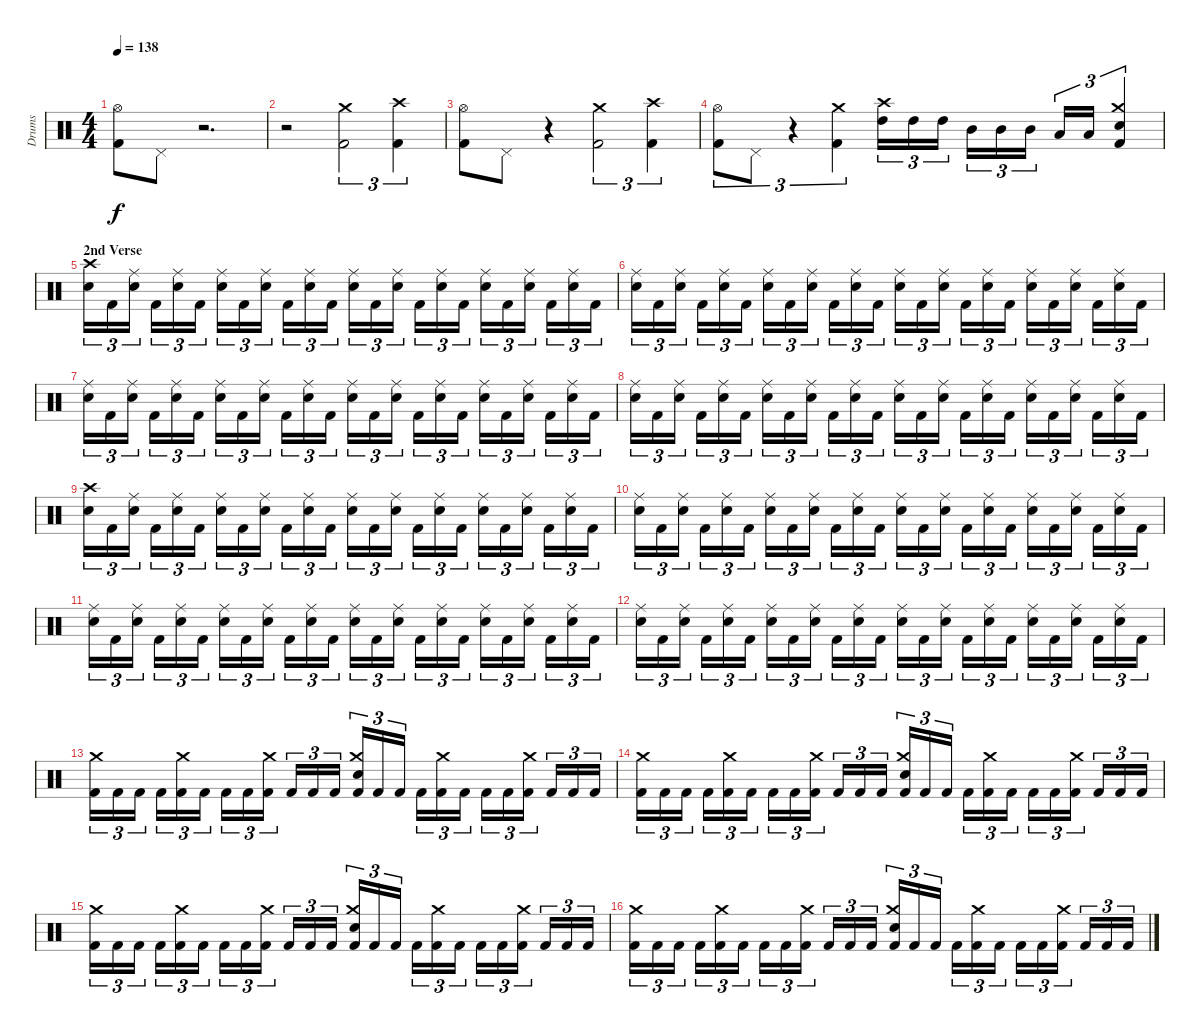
\track ("Drums" "Drums") {instrument percussion}
\staff {score}
\articulation defaults
\ts (4 4)
\tempo 138
\clef neutral
\ks c
("Kick (hit) 2" "Hi-Hat (open)").8{dy f} "Pedal Hi-Hat (hit)".8 r.2{d} |
r.2 ("Kick (hit) 2" "Crash medium (hit)").2{tu (3 2)} ("Kick (hit) 2" "Crash high (hit)").4{tu (3 2)} |
("Kick (hit) 2" "Hi-Hat (open)").8 "Pedal Hi-Hat (hit)".8 r.4 ("Kick (hit) 2" "Crash medium (hit)").2{tu (3 2)} ("Kick (hit) 2" "Crash high (hit)").4{tu (3 2)} |
("Kick (hit) 2" "Hi-Hat (open)").8{tu (3 2)} "Pedal Hi-Hat (hit)".8{tu (3 2)} r.4{tu (3 2)} ("Kick (hit) 2" "Crash medium (hit)").4{tu (3 2)} ("High Tom (hit)" "Crash high (hit)").16{tu (3 2)} "High Tom (hit)".16{tu (3 2)} "High Tom (hit)".16{tu (3 2)} "Mid Tom (hit)".16{tu (3 2)} "Mid Tom (hit)".16{tu (3 2)} "Mid Tom (hit)".16{tu (3 2)} "Low Tom (hit)".16{tu (3 2)} "Low Tom (hit)".16{tu (3 2)} ("Kick (hit) 2" "Electric Snare (hit)" "Crash medium (hit)").4{tu (3 2)} |
\section ("" "2nd Verse")
("Electric Snare (hit)" "Crash high (hit)").16{tu (3 2)} "Kick (hit) 2".16{tu (3 2)} ("Electric Snare (hit)" "Ride (middle)").16{tu (3 2)} "Kick (hit) 2".16{tu (3 2)} ("Electric Snare (hit)" "Ride (middle)").16{tu (3 2)} "Kick (hit) 2".16{tu (3 2)} ("Electric Snare (hit)" "Ride (middle)").16{tu (3 2)} "Kick (hit) 2".16{tu (3 2)} ("Electric Snare (hit)" "Ride (middle)").16{tu (3 2)} "Kick (hit) 2".16{tu (3 2)} ("Electric Snare (hit)" "Ride (middle)").16{tu (3 2)} "Kick (hit) 2".16{tu (3 2)} ("Electric Snare (hit)" "Ride (middle)").16{tu (3 2)} "Kick (hit) 2".16{tu (3 2)} ("Electric Snare (hit)" "Ride (middle)").16{tu (3 2)} "Kick (hit) 2".16{tu (3 2)} ("Electric Snare (hit)" "Ride (middle)").16{tu (3 2)} "Kick (hit) 2".16{tu (3 2)} ("Electric Snare (hit)" "Ride (middle)").16{tu (3 2)} "Kick (hit) 2".16{tu (3 2)} ("Electric Snare (hit)" "Ride (middle)").16{tu (3 2)} "Kick (hit) 2".16{tu (3 2)} ("Electric Snare (hit)" "Ride (middle)").16{tu (3 2)} "Kick (hit) 2".16{tu (3 2)} |
("Electric Snare (hit)" "Ride (middle)").16{tu (3 2)} "Kick (hit) 2".16{tu (3 2)} ("Electric Snare (hit)" "Ride (middle)").16{tu (3 2)} "Kick (hit) 2".16{tu (3 2)} ("Electric Snare (hit)" "Ride (middle)").16{tu (3 2)} "Kick (hit) 2".16{tu (3 2)} ("Electric Snare (hit)" "Ride (middle)").16{tu (3 2)} "Kick (hit) 2".16{tu (3 2)} ("Electric Snare (hit)" "Ride (middle)").16{tu (3 2)} "Kick (hit) 2".16{tu (3 2)} ("Electric Snare (hit)" "Ride (middle)").16{tu (3 2)} "Kick (hit) 2".16{tu (3 2)} ("Electric Snare (hit)" "Ride (middle)").16{tu (3 2)} "Kick (hit) 2".16{tu (3 2)} ("Electric Snare (hit)" "Ride (middle)").16{tu (3 2)} "Kick (hit) 2".16{tu (3 2)} ("Electric Snare (hit)" "Ride (middle)").16{tu (3 2)} "Kick (hit) 2".16{tu (3 2)} ("Electric Snare (hit)" "Ride (middle)").16{tu (3 2)} "Kick (hit) 2".16{tu (3 2)} ("Electric Snare (hit)" "Ride (middle)").16{tu (3 2)} "Kick (hit) 2".16{tu (3 2)} ("Electric Snare (hit)" "Ride (middle)").16{tu (3 2)} "Kick (hit) 2".16{tu (3 2)} |
("Electric Snare (hit)" "Ride (middle)").16{tu (3 2)} "Kick (hit) 2".16{tu (3 2)} ("Electric Snare (hit)" "Ride (middle)").16{tu (3 2)} "Kick (hit) 2".16{tu (3 2)} ("Electric Snare (hit)" "Ride (middle)").16{tu (3 2)} "Kick (hit) 2".16{tu (3 2)} ("Electric Snare (hit)" "Ride (middle)").16{tu (3 2)} "Kick (hit) 2".16{tu (3 2)} ("Electric Snare (hit)" "Ride (middle)").16{tu (3 2)} "Kick (hit) 2".16{tu (3 2)} ("Electric Snare (hit)" "Ride (middle)").16{tu (3 2)} "Kick (hit) 2".16{tu (3 2)} ("Electric Snare (hit)" "Ride (middle)").16{tu (3 2)} "Kick (hit) 2".16{tu (3 2)} ("Electric Snare (hit)" "Ride (middle)").16{tu (3 2)} "Kick (hit) 2".16{tu (3 2)} ("Electric Snare (hit)" "Ride (middle)").16{tu (3 2)} "Kick (hit) 2".16{tu (3 2)} ("Electric Snare (hit)" "Ride (middle)").16{tu (3 2)} "Kick (hit) 2".16{tu (3 2)} ("Electric Snare (hit)" "Ride (middle)").16{tu (3 2)} "Kick (hit) 2".16{tu (3 2)} ("Electric Snare (hit)" "Ride (middle)").16{tu (3 2)} "Kick (hit) 2".16{tu (3 2)} |
("Electric Snare (hit)" "Ride (middle)").16{tu (3 2)} "Kick (hit) 2".16{tu (3 2)} ("Electric Snare (hit)" "Ride (middle)").16{tu (3 2)} "Kick (hit) 2".16{tu (3 2)} ("Electric Snare (hit)" "Ride (middle)").16{tu (3 2)} "Kick (hit) 2".16{tu (3 2)} ("Electric Snare (hit)" "Ride (middle)").16{tu (3 2)} "Kick (hit) 2".16{tu (3 2)} ("Electric Snare (hit)" "Ride (middle)").16{tu (3 2)} "Kick (hit) 2".16{tu (3 2)} ("Electric Snare (hit)" "Ride (middle)").16{tu (3 2)} "Kick (hit) 2".16{tu (3 2)} ("Electric Snare (hit)" "Ride (middle)").16{tu (3 2)} "Kick (hit) 2".16{tu (3 2)} ("Electric Snare (hit)" "Ride (middle)").16{tu (3 2)} "Kick (hit) 2".16{tu (3 2)} ("Electric Snare (hit)" "Ride (middle)").16{tu (3 2)} "Kick (hit) 2".16{tu (3 2)} ("Electric Snare (hit)" "Ride (middle)").16{tu (3 2)} "Kick (hit) 2".16{tu (3 2)} ("Electric Snare (hit)" "Ride (middle)").16{tu (3 2)} "Kick (hit) 2".16{tu (3 2)} ("Electric Snare (hit)" "Ride (middle)").16{tu (3 2)} "Kick (hit) 2".16{tu (3 2)} |
("Electric Snare (hit)" "Crash high (hit)").16{tu (3 2)} "Kick (hit) 2".16{tu (3 2)} ("Electric Snare (hit)" "Ride (middle)").16{tu (3 2)} "Kick (hit) 2".16{tu (3 2)} ("Electric Snare (hit)" "Ride (middle)").16{tu (3 2)} "Kick (hit) 2".16{tu (3 2)} ("Electric Snare (hit)" "Ride (middle)").16{tu (3 2)} "Kick (hit) 2".16{tu (3 2)} ("Electric Snare (hit)" "Ride (middle)").16{tu (3 2)} "Kick (hit) 2".16{tu (3 2)} ("Electric Snare (hit)" "Ride (middle)").16{tu (3 2)} "Kick (hit) 2".16{tu (3 2)} ("Electric Snare (hit)" "Ride (middle)").16{tu (3 2)} "Kick (hit) 2".16{tu (3 2)} ("Electric Snare (hit)" "Ride (middle)").16{tu (3 2)} "Kick (hit) 2".16{tu (3 2)} ("Electric Snare (hit)" "Ride (middle)").16{tu (3 2)} "Kick (hit) 2".16{tu (3 2)} ("Electric Snare (hit)" "Ride (middle)").16{tu (3 2)} "Kick (hit) 2".16{tu (3 2)} ("Electric Snare (hit)" "Ride (middle)").16{tu (3 2)} "Kick (hit) 2".16{tu (3 2)} ("Electric Snare (hit)" "Ride (middle)").16{tu (3 2)} "Kick (hit) 2".16{tu (3 2)} |
("Electric Snare (hit)" "Ride (middle)").16{tu (3 2)} "Kick (hit) 2".16{tu (3 2)} ("Electric Snare (hit)" "Ride (middle)").16{tu (3 2)} "Kick (hit) 2".16{tu (3 2)} ("Electric Snare (hit)" "Ride (middle)").16{tu (3 2)} "Kick (hit) 2".16{tu (3 2)} ("Electric Snare (hit)" "Ride (middle)").16{tu (3 2)} "Kick (hit) 2".16{tu (3 2)} ("Electric Snare (hit)" "Ride (middle)").16{tu (3 2)} "Kick (hit) 2".16{tu (3 2)} ("Electric Snare (hit)" "Ride (middle)").16{tu (3 2)} "Kick (hit) 2".16{tu (3 2)} ("Electric Snare (hit)" "Ride (middle)").16{tu (3 2)} "Kick (hit) 2".16{tu (3 2)} ("Electric Snare (hit)" "Ride (middle)").16{tu (3 2)} "Kick (hit) 2".16{tu (3 2)} ("Electric Snare (hit)" "Ride (middle)").16{tu (3 2)} "Kick (hit) 2".16{tu (3 2)} ("Electric Snare (hit)" "Ride (middle)").16{tu (3 2)} "Kick (hit) 2".16{tu (3 2)} ("Electric Snare (hit)" "Ride (middle)").16{tu (3 2)} "Kick (hit) 2".16{tu (3 2)} ("Electric Snare (hit)" "Ride (middle)").16{tu (3 2)} "Kick (hit) 2".16{tu (3 2)} |
("Electric Snare (hit)" "Ride (middle)").16{tu (3 2)} "Kick (hit) 2".16{tu (3 2)} ("Electric Snare (hit)" "Ride (middle)").16{tu (3 2)} "Kick (hit) 2".16{tu (3 2)} ("Electric Snare (hit)" "Ride (middle)").16{tu (3 2)} "Kick (hit) 2".16{tu (3 2)} ("Electric Snare (hit)" "Ride (middle)").16{tu (3 2)} "Kick (hit) 2".16{tu (3 2)} ("Electric Snare (hit)" "Ride (middle)").16{tu (3 2)} "Kick (hit) 2".16{tu (3 2)} ("Electric Snare (hit)" "Ride (middle)").16{tu (3 2)} "Kick (hit) 2".16{tu (3 2)} ("Electric Snare (hit)" "Ride (middle)").16{tu (3 2)} "Kick (hit) 2".16{tu (3 2)} ("Electric Snare (hit)" "Ride (middle)").16{tu (3 2)} "Kick (hit) 2".16{tu (3 2)} ("Electric Snare (hit)" "Ride (middle)").16{tu (3 2)} "Kick (hit) 2".16{tu (3 2)} ("Electric Snare (hit)" "Ride (middle)").16{tu (3 2)} "Kick (hit) 2".16{tu (3 2)} ("Electric Snare (hit)" "Ride (middle)").16{tu (3 2)} "Kick (hit) 2".16{tu (3 2)} ("Electric Snare (hit)" "Ride (middle)").16{tu (3 2)} "Kick (hit) 2".16{tu (3 2)} |
("Electric Snare (hit)" "Ride (middle)").16{tu (3 2)} "Kick (hit) 2".16{tu (3 2)} ("Electric Snare (hit)" "Ride (middle)").16{tu (3 2)} "Kick (hit) 2".16{tu (3 2)} ("Electric Snare (hit)" "Ride (middle)").16{tu (3 2)} "Kick (hit) 2".16{tu (3 2)} ("Electric Snare (hit)" "Ride (middle)").16{tu (3 2)} "Kick (hit) 2".16{tu (3 2)} ("Electric Snare (hit)" "Ride (middle)").16{tu (3 2)} "Kick (hit) 2".16{tu (3 2)} ("Electric Snare (hit)" "Ride (middle)").16{tu (3 2)} "Kick (hit) 2".16{tu (3 2)} ("Electric Snare (hit)" "Ride (middle)").16{tu (3 2)} "Kick (hit) 2".16{tu (3 2)} ("Electric Snare (hit)" "Ride (middle)").16{tu (3 2)} "Kick (hit) 2".16{tu (3 2)} ("Electric Snare (hit)" "Ride (middle)").16{tu (3 2)} "Kick (hit) 2".16{tu (3 2)} ("Electric Snare (hit)" "Ride (middle)").16{tu (3 2)} "Kick (hit) 2".16{tu (3 2)} ("Electric Snare (hit)" "Ride (middle)").16{tu (3 2)} "Kick (hit) 2".16{tu (3 2)} ("Electric Snare (hit)" "Ride (middle)").16{tu (3 2)} "Kick (hit) 2".16{tu (3 2)} |
("Kick (hit) 2" "Crash medium (hit)").16{tu (3 2)} "Kick (hit) 2".16{tu (3 2)} "Kick (hit) 2".16{tu (3 2)} "Kick (hit) 2".16{tu (3 2)} ("Kick (hit) 2" "Crash medium (hit)").16{tu (3 2)} "Kick (hit) 2".16{tu (3 2)} "Kick (hit) 2".16{tu (3 2)} "Kick (hit) 2".16{tu (3 2)} ("Kick (hit) 2" "Crash medium (hit)").16{tu (3 2)} "Kick (hit) 2".16{tu (3 2)} "Kick (hit) 2".16{tu (3 2)} "Kick (hit) 2".16{tu (3 2)} ("Kick (hit) 2" "Electric Snare (hit)" "Crash medium (hit)").16{tu (3 2)} "Kick (hit) 2".16{tu (3 2)} "Kick (hit) 2".16{tu (3 2)} "Kick (hit) 2".16{tu (3 2)} ("Kick (hit) 2" "Crash medium (hit)").16{tu (3 2)} "Kick (hit) 2".16{tu (3 2)} "Kick (hit) 2".16{tu (3 2)} "Kick (hit) 2".16{tu (3 2)} ("Kick (hit) 2" "Crash medium (hit)").16{tu (3 2)} "Kick (hit) 2".16{tu (3 2)} "Kick (hit) 2".16{tu (3 2)} "Kick (hit) 2".16{tu (3 2)} |
("Kick (hit) 2" "Crash medium (hit)").16{tu (3 2)} "Kick (hit) 2".16{tu (3 2)} "Kick (hit) 2".16{tu (3 2)} "Kick (hit) 2".16{tu (3 2)} ("Kick (hit) 2" "Crash medium (hit)").16{tu (3 2)} "Kick (hit) 2".16{tu (3 2)} "Kick (hit) 2".16{tu (3 2)} "Kick (hit) 2".16{tu (3 2)} ("Kick (hit) 2" "Crash medium (hit)").16{tu (3 2)} "Kick (hit) 2".16{tu (3 2)} "Kick (hit) 2".16{tu (3 2)} "Kick (hit) 2".16{tu (3 2)} ("Kick (hit) 2" "Electric Snare (hit)" "Crash medium (hit)").16{tu (3 2)} "Kick (hit) 2".16{tu (3 2)} "Kick (hit) 2".16{tu (3 2)} "Kick (hit) 2".16{tu (3 2)} ("Kick (hit) 2" "Crash medium (hit)").16{tu (3 2)} "Kick (hit) 2".16{tu (3 2)} "Kick (hit) 2".16{tu (3 2)} "Kick (hit) 2".16{tu (3 2)} ("Kick (hit) 2" "Crash medium (hit)").16{tu (3 2)} "Kick (hit) 2".16{tu (3 2)} "Kick (hit) 2".16{tu (3 2)} "Kick (hit) 2".16{tu (3 2)} |
("Kick (hit) 2" "Crash medium (hit)").16{tu (3 2)} "Kick (hit) 2".16{tu (3 2)} "Kick (hit) 2".16{tu (3 2)} "Kick (hit) 2".16{tu (3 2)} ("Kick (hit) 2" "Crash medium (hit)").16{tu (3 2)} "Kick (hit) 2".16{tu (3 2)} "Kick (hit) 2".16{tu (3 2)} "Kick (hit) 2".16{tu (3 2)} ("Kick (hit) 2" "Crash medium (hit)").16{tu (3 2)} "Kick (hit) 2".16{tu (3 2)} "Kick (hit) 2".16{tu (3 2)} "Kick (hit) 2".16{tu (3 2)} ("Kick (hit) 2" "Electric Snare (hit)" "Crash medium (hit)").16{tu (3 2)} "Kick (hit) 2".16{tu (3 2)} "Kick (hit) 2".16{tu (3 2)} "Kick (hit) 2".16{tu (3 2)} ("Kick (hit) 2" "Crash medium (hit)").16{tu (3 2)} "Kick (hit) 2".16{tu (3 2)} "Kick (hit) 2".16{tu (3 2)} "Kick (hit) 2".16{tu (3 2)} ("Kick (hit) 2" "Crash medium (hit)").16{tu (3 2)} "Kick (hit) 2".16{tu (3 2)} "Kick (hit) 2".16{tu (3 2)} "Kick (hit) 2".16{tu (3 2)} |
("Kick (hit) 2" "Crash medium (hit)").16{tu (3 2)} "Kick (hit) 2".16{tu (3 2)} "Kick (hit) 2".16{tu (3 2)} "Kick (hit) 2".16{tu (3 2)} ("Kick (hit) 2" "Crash medium (hit)").16{tu (3 2)} "Kick (hit) 2".16{tu (3 2)} "Kick (hit) 2".16{tu (3 2)} "Kick (hit) 2".16{tu (3 2)} ("Kick (hit) 2" "Crash medium (hit)").16{tu (3 2)} "Kick (hit) 2".16{tu (3 2)} "Kick (hit) 2".16{tu (3 2)} "Kick (hit) 2".16{tu (3 2)} ("Kick (hit) 2" "Electric Snare (hit)" "Crash medium (hit)").16{tu (3 2)} "Kick (hit) 2".16{tu (3 2)} "Kick (hit) 2".16{tu (3 2)} "Kick (hit) 2".16{tu (3 2)} ("Kick (hit) 2" "Crash medium (hit)").16{tu (3 2)} "Kick (hit) 2".16{tu (3 2)} "Kick (hit) 2".16{tu (3 2)} "Kick (hit) 2".16{tu (3 2)} ("Kick (hit) 2" "Crash medium (hit)").16{tu (3 2)} "Kick (hit) 2".16{tu (3 2)} "Kick (hit) 2".16{tu (3 2)} "Kick (hit) 2".16{tu (3 2)}
